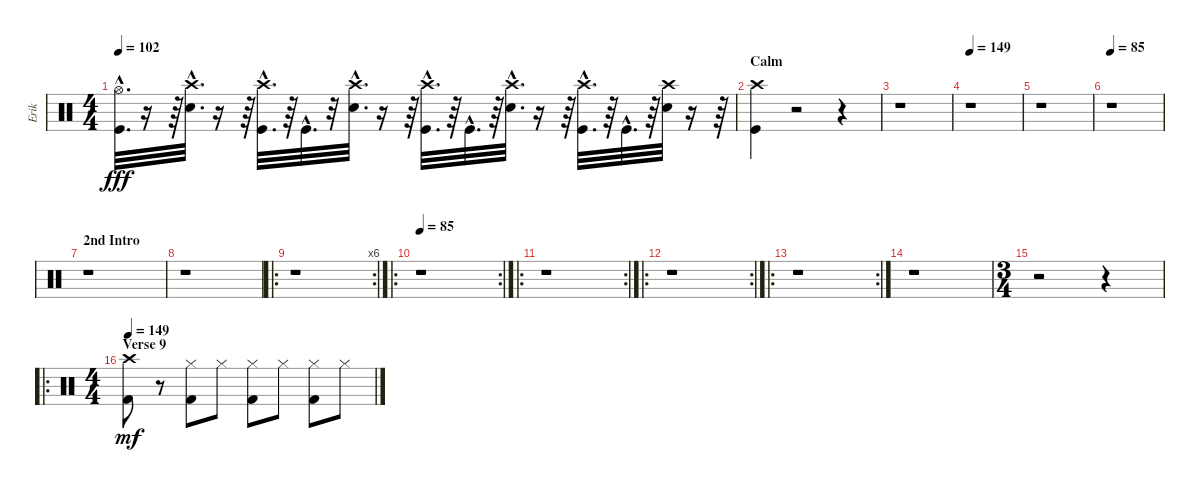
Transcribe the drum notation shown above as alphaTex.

\track ("Erik" "Erik") {instrument percussion}
\staff {score}
\articulation defaults
\ts (4 4)
\tempo 102
\clef neutral
\ks c
("Hi-Hat (open)"{hac} "Kick (hit)"{hac}).32{d dy fff} r.16 r.64 ("Crash high (hit)"{hac} "Electric Snare (hit)"{hac}).32{d} r.16 r.64 ("Kick (hit)"{hac} "Crash high (hit)"{hac}).32{d} r.64 "Kick (hit)"{hac}.32{d} r.32 ("Crash high (hit)"{hac} "Electric Snare (hit)"{hac}).32{d} r.16 r.64 ("Crash high (hit)"{hac} "Kick (hit)"{hac}).32{d} r.64 "Kick (hit)"{hac}.32{d} r.64 ("Crash high (hit)"{hac} "Electric Snare (hit)"{hac}).32{d} r.16 r.64 ("Kick (hit)"{hac} "Crash high (hit)"{hac}).32{d} r.64 "Kick (hit)"{hac}.32{d} r.64 ("Electric Snare (hit)" "Crash high (hit)").32 r.16 r.64 |
\section ("" "Calm")
("Kick (hit)" "Crash high (hit)").4 r.2 r.4 |
r.1 |
\tempo 149
r.1 |
r.1 |
\tempo 85
r.1 |
\section ("" "2nd Intro ")
r.1 |
r.1 |
\ro
\rc 6
r.1 |
\ro
\rc 2
\tempo 85
r.1 |
\ro
\rc 2
r.1 |
\ro
\rc 2
r.1 |
\ro
\rc 2
r.1 |
r.1 |
\ts (3 4)
r.2 r.4 |
\ro
\ts (4 4)
\section ("" "Verse 9")
\tempo 149
("Crash high (hit)" "Kick (hit) 2").8{dy mf} r.8 ("Hi-Hat (closed)" "Kick (hit) 2").8 "Hi-Hat (closed)".8 ("Hi-Hat (closed)" "Kick (hit) 2").8 "Hi-Hat (closed)".8 ("Hi-Hat (closed)" "Kick (hit) 2").8 "Hi-Hat (closed)".8
